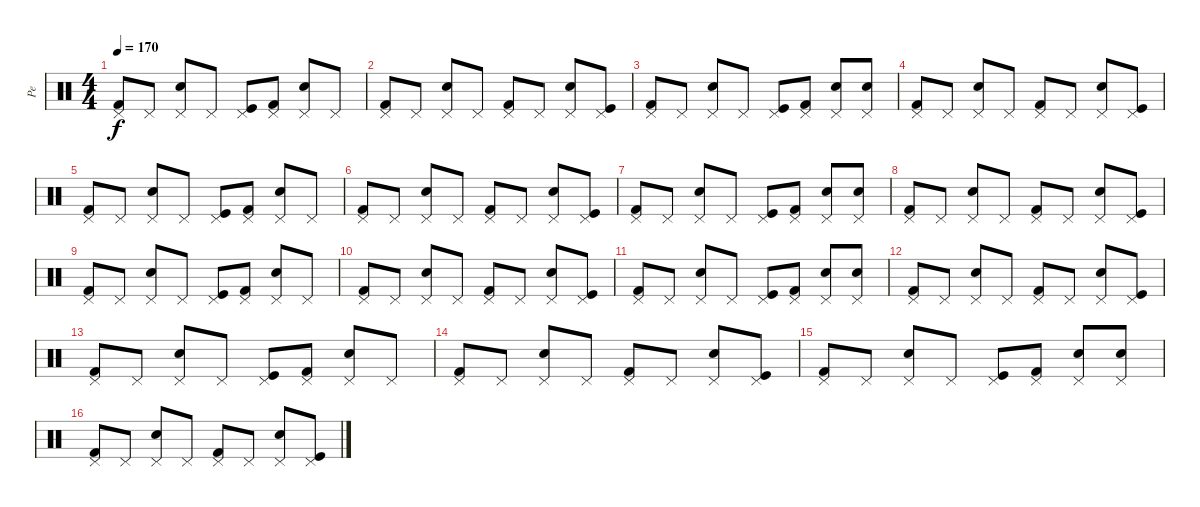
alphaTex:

\track ("Pe" "Pe") {instrument percussion}
\staff {score}
\articulation defaults
\ts (4 4)
\tempo 170
\clef neutral
\ks c
("Kick (hit) 2" "Pedal Hi-Hat (hit)").8{dy f} "Pedal Hi-Hat (hit)".8 ("Electric Snare (hit)" "Pedal Hi-Hat (hit)").8 "Pedal Hi-Hat (hit)".8 ("Kick (hit)" "Pedal Hi-Hat (hit)").8 ("Kick (hit) 2" "Pedal Hi-Hat (hit)").8 ("Electric Snare (hit)" "Pedal Hi-Hat (hit)").8 "Pedal Hi-Hat (hit)".8 |
("Kick (hit) 2" "Pedal Hi-Hat (hit)").8 "Pedal Hi-Hat (hit)".8 ("Electric Snare (hit)" "Pedal Hi-Hat (hit)").8 "Pedal Hi-Hat (hit)".8 ("Kick (hit) 2" "Pedal Hi-Hat (hit)").8 "Pedal Hi-Hat (hit)".8 ("Electric Snare (hit)" "Pedal Hi-Hat (hit)").8 ("Kick (hit)" "Pedal Hi-Hat (hit)").8 |
("Kick (hit) 2" "Pedal Hi-Hat (hit)").8 "Pedal Hi-Hat (hit)".8 ("Electric Snare (hit)" "Pedal Hi-Hat (hit)").8 "Pedal Hi-Hat (hit)".8 ("Kick (hit)" "Pedal Hi-Hat (hit)").8 ("Kick (hit) 2" "Pedal Hi-Hat (hit)").8 ("Electric Snare (hit)" "Pedal Hi-Hat (hit)").8 ("Electric Snare (hit)" "Pedal Hi-Hat (hit)").8 |
("Kick (hit) 2" "Pedal Hi-Hat (hit)").8 "Pedal Hi-Hat (hit)".8 ("Electric Snare (hit)" "Pedal Hi-Hat (hit)").8 "Pedal Hi-Hat (hit)".8 ("Kick (hit) 2" "Pedal Hi-Hat (hit)").8 "Pedal Hi-Hat (hit)".8 ("Electric Snare (hit)" "Pedal Hi-Hat (hit)").8 ("Kick (hit)" "Pedal Hi-Hat (hit)").8 |
("Kick (hit) 2" "Pedal Hi-Hat (hit)").8 "Pedal Hi-Hat (hit)".8 ("Electric Snare (hit)" "Pedal Hi-Hat (hit)").8 "Pedal Hi-Hat (hit)".8 ("Kick (hit)" "Pedal Hi-Hat (hit)").8 ("Kick (hit) 2" "Pedal Hi-Hat (hit)").8 ("Electric Snare (hit)" "Pedal Hi-Hat (hit)").8 "Pedal Hi-Hat (hit)".8 |
("Kick (hit) 2" "Pedal Hi-Hat (hit)").8 "Pedal Hi-Hat (hit)".8 ("Electric Snare (hit)" "Pedal Hi-Hat (hit)").8 "Pedal Hi-Hat (hit)".8 ("Kick (hit) 2" "Pedal Hi-Hat (hit)").8 "Pedal Hi-Hat (hit)".8 ("Electric Snare (hit)" "Pedal Hi-Hat (hit)").8 ("Kick (hit)" "Pedal Hi-Hat (hit)").8 |
("Kick (hit) 2" "Pedal Hi-Hat (hit)").8 "Pedal Hi-Hat (hit)".8 ("Electric Snare (hit)" "Pedal Hi-Hat (hit)").8 "Pedal Hi-Hat (hit)".8 ("Kick (hit)" "Pedal Hi-Hat (hit)").8 ("Kick (hit) 2" "Pedal Hi-Hat (hit)").8 ("Electric Snare (hit)" "Pedal Hi-Hat (hit)").8 ("Electric Snare (hit)" "Pedal Hi-Hat (hit)").8 |
("Kick (hit) 2" "Pedal Hi-Hat (hit)").8 "Pedal Hi-Hat (hit)".8 ("Electric Snare (hit)" "Pedal Hi-Hat (hit)").8 "Pedal Hi-Hat (hit)".8 ("Kick (hit) 2" "Pedal Hi-Hat (hit)").8 "Pedal Hi-Hat (hit)".8 ("Electric Snare (hit)" "Pedal Hi-Hat (hit)").8 ("Kick (hit)" "Pedal Hi-Hat (hit)").8 |
("Kick (hit) 2" "Pedal Hi-Hat (hit)").8 "Pedal Hi-Hat (hit)".8 ("Electric Snare (hit)" "Pedal Hi-Hat (hit)").8 "Pedal Hi-Hat (hit)".8 ("Kick (hit)" "Pedal Hi-Hat (hit)").8 ("Kick (hit) 2" "Pedal Hi-Hat (hit)").8 ("Electric Snare (hit)" "Pedal Hi-Hat (hit)").8 "Pedal Hi-Hat (hit)".8 |
("Kick (hit) 2" "Pedal Hi-Hat (hit)").8 "Pedal Hi-Hat (hit)".8 ("Electric Snare (hit)" "Pedal Hi-Hat (hit)").8 "Pedal Hi-Hat (hit)".8 ("Kick (hit) 2" "Pedal Hi-Hat (hit)").8 "Pedal Hi-Hat (hit)".8 ("Electric Snare (hit)" "Pedal Hi-Hat (hit)").8 ("Kick (hit)" "Pedal Hi-Hat (hit)").8 |
("Kick (hit) 2" "Pedal Hi-Hat (hit)").8 "Pedal Hi-Hat (hit)".8 ("Electric Snare (hit)" "Pedal Hi-Hat (hit)").8 "Pedal Hi-Hat (hit)".8 ("Kick (hit)" "Pedal Hi-Hat (hit)").8 ("Kick (hit) 2" "Pedal Hi-Hat (hit)").8 ("Electric Snare (hit)" "Pedal Hi-Hat (hit)").8 ("Electric Snare (hit)" "Pedal Hi-Hat (hit)").8 |
("Kick (hit) 2" "Pedal Hi-Hat (hit)").8 "Pedal Hi-Hat (hit)".8 ("Electric Snare (hit)" "Pedal Hi-Hat (hit)").8 "Pedal Hi-Hat (hit)".8 ("Kick (hit) 2" "Pedal Hi-Hat (hit)").8 "Pedal Hi-Hat (hit)".8 ("Electric Snare (hit)" "Pedal Hi-Hat (hit)").8 ("Kick (hit)" "Pedal Hi-Hat (hit)").8 |
("Kick (hit) 2" "Pedal Hi-Hat (hit)").8 "Pedal Hi-Hat (hit)".8 ("Electric Snare (hit)" "Pedal Hi-Hat (hit)").8 "Pedal Hi-Hat (hit)".8 ("Kick (hit)" "Pedal Hi-Hat (hit)").8 ("Kick (hit) 2" "Pedal Hi-Hat (hit)").8 ("Electric Snare (hit)" "Pedal Hi-Hat (hit)").8 "Pedal Hi-Hat (hit)".8 |
("Kick (hit) 2" "Pedal Hi-Hat (hit)").8 "Pedal Hi-Hat (hit)".8 ("Electric Snare (hit)" "Pedal Hi-Hat (hit)").8 "Pedal Hi-Hat (hit)".8 ("Kick (hit) 2" "Pedal Hi-Hat (hit)").8 "Pedal Hi-Hat (hit)".8 ("Electric Snare (hit)" "Pedal Hi-Hat (hit)").8 ("Kick (hit)" "Pedal Hi-Hat (hit)").8 |
("Kick (hit) 2" "Pedal Hi-Hat (hit)").8 "Pedal Hi-Hat (hit)".8 ("Electric Snare (hit)" "Pedal Hi-Hat (hit)").8 "Pedal Hi-Hat (hit)".8 ("Kick (hit)" "Pedal Hi-Hat (hit)").8 ("Kick (hit) 2" "Pedal Hi-Hat (hit)").8 ("Electric Snare (hit)" "Pedal Hi-Hat (hit)").8 ("Electric Snare (hit)" "Pedal Hi-Hat (hit)").8 |
("Kick (hit) 2" "Pedal Hi-Hat (hit)").8 "Pedal Hi-Hat (hit)".8 ("Electric Snare (hit)" "Pedal Hi-Hat (hit)").8 "Pedal Hi-Hat (hit)".8 ("Kick (hit) 2" "Pedal Hi-Hat (hit)").8 "Pedal Hi-Hat (hit)".8 ("Electric Snare (hit)" "Pedal Hi-Hat (hit)").8 ("Kick (hit)" "Pedal Hi-Hat (hit)").8
